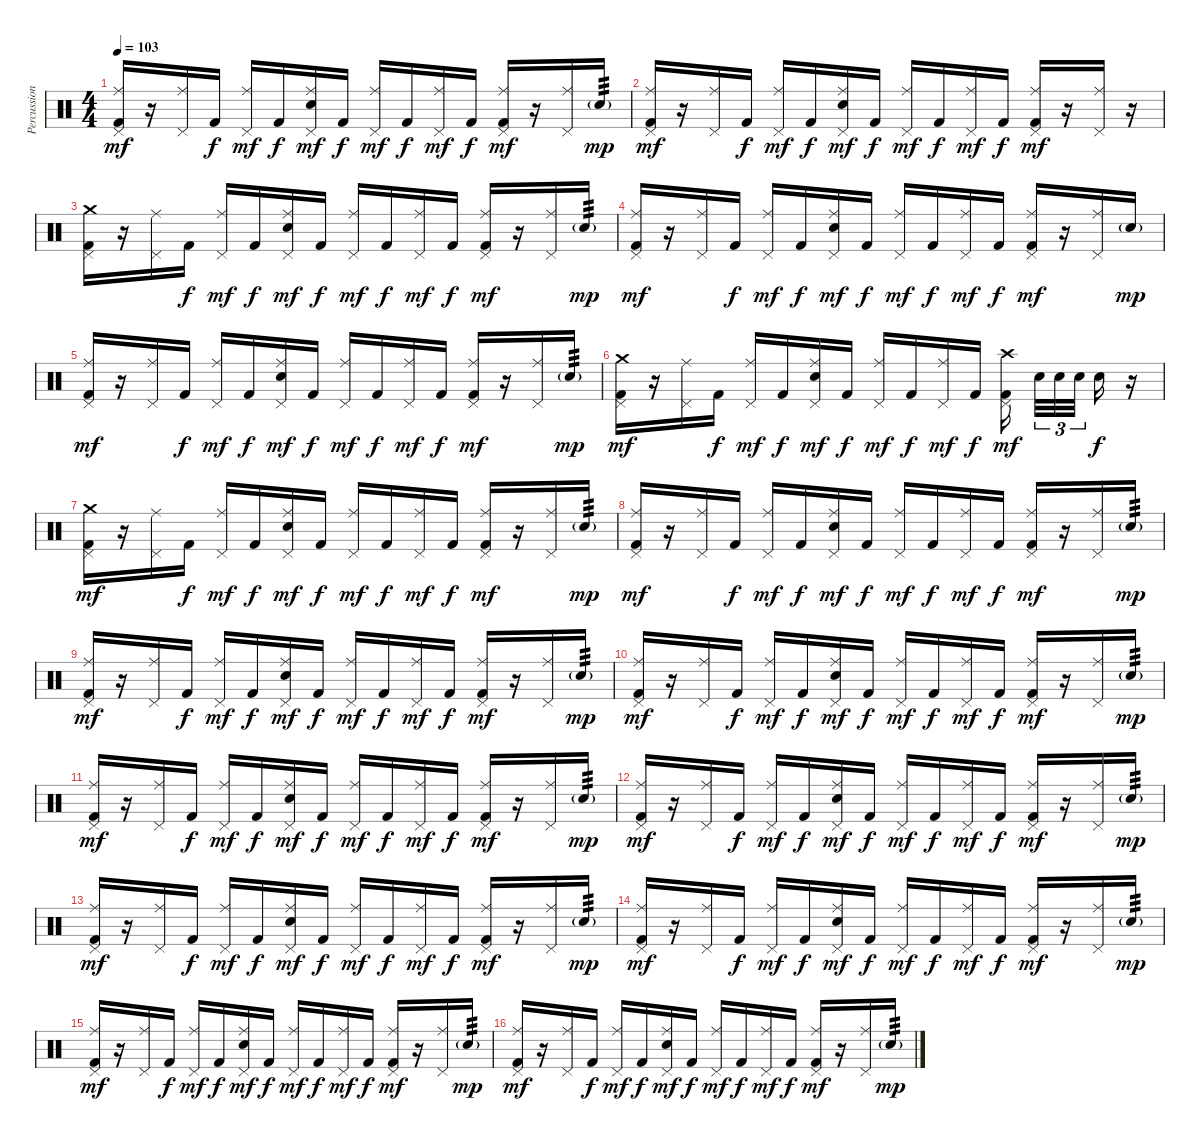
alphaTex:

\track ("Percussion" "Percussion") {instrument percussion}
\staff {score}
\articulation defaults
\ts (4 4)
\tempo 103
\clef neutral
\ks c
("Ride (middle)" "Pedal Hi-Hat (hit)" "Kick (hit) 2").16{dy mf} r.16 ("Ride (middle)" "Pedal Hi-Hat (hit)").16 "Kick (hit) 2".16{dy f} ("Ride (middle)" "Pedal Hi-Hat (hit)").16{dy mf} "Kick (hit) 2".16{dy f} ("Ride (middle)" "Pedal Hi-Hat (hit)" "Snare (hit) 2").16{dy mf} "Kick (hit) 2".16{dy f} ("Ride (middle)" "Pedal Hi-Hat (hit)").16{dy mf} "Kick (hit) 2".16{dy f} ("Ride (middle)" "Pedal Hi-Hat (hit)").16{dy mf} "Kick (hit) 2".16{dy f} ("Ride (middle)" "Pedal Hi-Hat (hit)" "Kick (hit) 2").16{dy mf} r.16 ("Ride (middle)" "Pedal Hi-Hat (hit)").16 "Snare (hit) 2"{g}.16{tp 3 dy mp} |
("Ride (middle)" "Pedal Hi-Hat (hit)" "Kick (hit) 2").16{dy mf} r.16 ("Ride (middle)" "Pedal Hi-Hat (hit)").16 "Kick (hit) 2".16{dy f} ("Ride (middle)" "Pedal Hi-Hat (hit)").16{dy mf} "Kick (hit) 2".16{dy f} ("Ride (middle)" "Pedal Hi-Hat (hit)" "Snare (hit) 2").16{dy mf} "Kick (hit) 2".16{dy f} ("Ride (middle)" "Pedal Hi-Hat (hit)").16{dy mf} "Kick (hit) 2".16{dy f} ("Ride (middle)" "Pedal Hi-Hat (hit)").16{dy mf} "Kick (hit) 2".16{dy f} ("Ride (middle)" "Pedal Hi-Hat (hit)" "Kick (hit) 2").16{dy mf} r.16 ("Ride (middle)" "Pedal Hi-Hat (hit)").16 r.16 |
("Crash medium (hit)" "Pedal Hi-Hat (hit)" "Kick (hit) 2").16 r.16 ("Ride (middle)" "Pedal Hi-Hat (hit)").16 "Kick (hit) 2".16{dy f} ("Ride (middle)" "Pedal Hi-Hat (hit)").16{dy mf} "Kick (hit) 2".16{dy f} ("Ride (middle)" "Pedal Hi-Hat (hit)" "Snare (hit) 2").16{dy mf} "Kick (hit) 2".16{dy f} ("Ride (middle)" "Pedal Hi-Hat (hit)").16{dy mf} "Kick (hit) 2".16{dy f} ("Ride (middle)" "Pedal Hi-Hat (hit)").16{dy mf} "Kick (hit) 2".16{dy f} ("Ride (middle)" "Pedal Hi-Hat (hit)" "Kick (hit) 2").16{dy mf} r.16 ("Ride (middle)" "Pedal Hi-Hat (hit)").16 "Snare (hit) 2"{g}.16{tp 3 dy mp} |
("Ride (middle)" "Pedal Hi-Hat (hit)" "Kick (hit) 2").16{dy mf} r.16 ("Ride (middle)" "Pedal Hi-Hat (hit)").16 "Kick (hit) 2".16{dy f} ("Ride (middle)" "Pedal Hi-Hat (hit)").16{dy mf} "Kick (hit) 2".16{dy f} ("Ride (middle)" "Pedal Hi-Hat (hit)" "Snare (hit) 2").16{dy mf} "Kick (hit) 2".16{dy f} ("Ride (middle)" "Pedal Hi-Hat (hit)").16{dy mf} "Kick (hit) 2".16{dy f} ("Ride (middle)" "Pedal Hi-Hat (hit)").16{dy mf} "Kick (hit) 2".16{dy f} ("Ride (middle)" "Pedal Hi-Hat (hit)" "Kick (hit) 2").16{dy mf} r.16 ("Ride (middle)" "Pedal Hi-Hat (hit)").16 "Snare (hit) 2"{g}.16{dy mp} |
("Ride (middle)" "Pedal Hi-Hat (hit)" "Kick (hit) 2").16{dy mf} r.16 ("Ride (middle)" "Pedal Hi-Hat (hit)").16 "Kick (hit) 2".16{dy f} ("Ride (middle)" "Pedal Hi-Hat (hit)").16{dy mf} "Kick (hit) 2".16{dy f} ("Ride (middle)" "Pedal Hi-Hat (hit)" "Snare (hit) 2").16{dy mf} "Kick (hit) 2".16{dy f} ("Ride (middle)" "Pedal Hi-Hat (hit)").16{dy mf} "Kick (hit) 2".16{dy f} ("Ride (middle)" "Pedal Hi-Hat (hit)").16{dy mf} "Kick (hit) 2".16{dy f} ("Ride (middle)" "Pedal Hi-Hat (hit)" "Kick (hit) 2").16{dy mf} r.16 ("Ride (middle)" "Pedal Hi-Hat (hit)").16 "Snare (hit) 2"{g}.16{tp 3 dy mp} |
("Crash medium (hit)" "Pedal Hi-Hat (hit)" "Kick (hit) 2").16{dy mf} r.16 ("Ride (middle)" "Pedal Hi-Hat (hit)").16 "Kick (hit) 2".16{dy f} ("Ride (middle)" "Pedal Hi-Hat (hit)").16{dy mf} "Kick (hit) 2".16{dy f} ("Ride (middle)" "Pedal Hi-Hat (hit)" "Snare (hit) 2").16{dy mf} "Kick (hit) 2".16{dy f} ("Ride (middle)" "Pedal Hi-Hat (hit)").16{dy mf} "Kick (hit) 2".16{dy f} ("Ride (middle)" "Pedal Hi-Hat (hit)").16{dy mf} "Kick (hit) 2".16{dy f} ("Crash high (hit)" "Pedal Hi-Hat (hit)" "Kick (hit) 2").16{dy mf beam splitsecondary} "Snare (hit) 2".32{tu (3 2)} "Snare (hit) 2".32{tu (3 2)} "Snare (hit) 2".32{tu (3 2) beam splitsecondary} "Snare (hit) 2".16{dy f} r.16 |
("Crash medium (hit)" "Pedal Hi-Hat (hit)" "Kick (hit) 2").16{dy mf} r.16 ("Ride (middle)" "Pedal Hi-Hat (hit)").16 "Kick (hit) 2".16{dy f} ("Ride (middle)" "Pedal Hi-Hat (hit)").16{dy mf} "Kick (hit) 2".16{dy f} ("Ride (middle)" "Pedal Hi-Hat (hit)" "Snare (hit) 2").16{dy mf} "Kick (hit) 2".16{dy f} ("Ride (middle)" "Pedal Hi-Hat (hit)").16{dy mf} "Kick (hit) 2".16{dy f} ("Ride (middle)" "Pedal Hi-Hat (hit)").16{dy mf} "Kick (hit) 2".16{dy f} ("Ride (middle)" "Pedal Hi-Hat (hit)" "Kick (hit) 2").16{dy mf} r.16 ("Ride (middle)" "Pedal Hi-Hat (hit)").16 "Snare (hit) 2"{g}.16{tp 3 dy mp} |
("Ride (middle)" "Pedal Hi-Hat (hit)" "Kick (hit) 2").16{dy mf} r.16 ("Ride (middle)" "Pedal Hi-Hat (hit)").16 "Kick (hit) 2".16{dy f} ("Ride (middle)" "Pedal Hi-Hat (hit)").16{dy mf} "Kick (hit) 2".16{dy f} ("Ride (middle)" "Pedal Hi-Hat (hit)" "Snare (hit) 2").16{dy mf} "Kick (hit) 2".16{dy f} ("Ride (middle)" "Pedal Hi-Hat (hit)").16{dy mf} "Kick (hit) 2".16{dy f} ("Ride (middle)" "Pedal Hi-Hat (hit)").16{dy mf} "Kick (hit) 2".16{dy f} ("Ride (middle)" "Pedal Hi-Hat (hit)" "Kick (hit) 2").16{dy mf} r.16 ("Ride (middle)" "Pedal Hi-Hat (hit)").16 "Snare (hit) 2"{g}.16{tp 3 dy mp} |
("Ride (middle)" "Pedal Hi-Hat (hit)" "Kick (hit) 2").16{dy mf} r.16 ("Ride (middle)" "Pedal Hi-Hat (hit)").16 "Kick (hit) 2".16{dy f} ("Ride (middle)" "Pedal Hi-Hat (hit)").16{dy mf} "Kick (hit) 2".16{dy f} ("Ride (middle)" "Pedal Hi-Hat (hit)" "Snare (hit) 2").16{dy mf} "Kick (hit) 2".16{dy f} ("Ride (middle)" "Pedal Hi-Hat (hit)").16{dy mf} "Kick (hit) 2".16{dy f} ("Ride (middle)" "Pedal Hi-Hat (hit)").16{dy mf} "Kick (hit) 2".16{dy f} ("Ride (middle)" "Pedal Hi-Hat (hit)" "Kick (hit) 2").16{dy mf} r.16 ("Ride (middle)" "Pedal Hi-Hat (hit)").16 "Snare (hit) 2"{g}.16{tp 3 dy mp} |
("Ride (middle)" "Pedal Hi-Hat (hit)" "Kick (hit) 2").16{dy mf} r.16 ("Ride (middle)" "Pedal Hi-Hat (hit)").16 "Kick (hit) 2".16{dy f} ("Ride (middle)" "Pedal Hi-Hat (hit)").16{dy mf} "Kick (hit) 2".16{dy f} ("Ride (middle)" "Pedal Hi-Hat (hit)" "Snare (hit) 2").16{dy mf} "Kick (hit) 2".16{dy f} ("Ride (middle)" "Pedal Hi-Hat (hit)").16{dy mf} "Kick (hit) 2".16{dy f} ("Ride (middle)" "Pedal Hi-Hat (hit)").16{dy mf} "Kick (hit) 2".16{dy f} ("Ride (middle)" "Pedal Hi-Hat (hit)" "Kick (hit) 2").16{dy mf} r.16 ("Ride (middle)" "Pedal Hi-Hat (hit)").16 "Snare (hit) 2"{g}.16{tp 3 dy mp} |
("Ride (middle)" "Pedal Hi-Hat (hit)" "Kick (hit) 2").16{dy mf} r.16 ("Ride (middle)" "Pedal Hi-Hat (hit)").16 "Kick (hit) 2".16{dy f} ("Ride (middle)" "Pedal Hi-Hat (hit)").16{dy mf} "Kick (hit) 2".16{dy f} ("Ride (middle)" "Pedal Hi-Hat (hit)" "Snare (hit) 2").16{dy mf} "Kick (hit) 2".16{dy f} ("Ride (middle)" "Pedal Hi-Hat (hit)").16{dy mf} "Kick (hit) 2".16{dy f} ("Ride (middle)" "Pedal Hi-Hat (hit)").16{dy mf} "Kick (hit) 2".16{dy f} ("Ride (middle)" "Pedal Hi-Hat (hit)" "Kick (hit) 2").16{dy mf} r.16 ("Ride (middle)" "Pedal Hi-Hat (hit)").16 "Snare (hit) 2"{g}.16{tp 3 dy mp} |
("Ride (middle)" "Pedal Hi-Hat (hit)" "Kick (hit) 2").16{dy mf} r.16 ("Ride (middle)" "Pedal Hi-Hat (hit)").16 "Kick (hit) 2".16{dy f} ("Ride (middle)" "Pedal Hi-Hat (hit)").16{dy mf} "Kick (hit) 2".16{dy f} ("Ride (middle)" "Pedal Hi-Hat (hit)" "Snare (hit) 2").16{dy mf} "Kick (hit) 2".16{dy f} ("Ride (middle)" "Pedal Hi-Hat (hit)").16{dy mf} "Kick (hit) 2".16{dy f} ("Ride (middle)" "Pedal Hi-Hat (hit)").16{dy mf} "Kick (hit) 2".16{dy f} ("Ride (middle)" "Pedal Hi-Hat (hit)" "Kick (hit) 2").16{dy mf} r.16 ("Ride (middle)" "Pedal Hi-Hat (hit)").16 "Snare (hit) 2"{g}.16{tp 3 dy mp} |
("Ride (middle)" "Pedal Hi-Hat (hit)" "Kick (hit) 2").16{dy mf} r.16 ("Ride (middle)" "Pedal Hi-Hat (hit)").16 "Kick (hit) 2".16{dy f} ("Ride (middle)" "Pedal Hi-Hat (hit)").16{dy mf} "Kick (hit) 2".16{dy f} ("Ride (middle)" "Pedal Hi-Hat (hit)" "Snare (hit) 2").16{dy mf} "Kick (hit) 2".16{dy f} ("Ride (middle)" "Pedal Hi-Hat (hit)").16{dy mf} "Kick (hit) 2".16{dy f} ("Ride (middle)" "Pedal Hi-Hat (hit)").16{dy mf} "Kick (hit) 2".16{dy f} ("Ride (middle)" "Pedal Hi-Hat (hit)" "Kick (hit) 2").16{dy mf} r.16 ("Ride (middle)" "Pedal Hi-Hat (hit)").16 "Snare (hit) 2"{g}.16{tp 3 dy mp} |
("Ride (middle)" "Pedal Hi-Hat (hit)" "Kick (hit) 2").16{dy mf} r.16 ("Ride (middle)" "Pedal Hi-Hat (hit)").16 "Kick (hit) 2".16{dy f} ("Ride (middle)" "Pedal Hi-Hat (hit)").16{dy mf} "Kick (hit) 2".16{dy f} ("Ride (middle)" "Pedal Hi-Hat (hit)" "Snare (hit) 2").16{dy mf} "Kick (hit) 2".16{dy f} ("Ride (middle)" "Pedal Hi-Hat (hit)").16{dy mf} "Kick (hit) 2".16{dy f} ("Ride (middle)" "Pedal Hi-Hat (hit)").16{dy mf} "Kick (hit) 2".16{dy f} ("Ride (middle)" "Pedal Hi-Hat (hit)" "Kick (hit) 2").16{dy mf} r.16 ("Ride (middle)" "Pedal Hi-Hat (hit)").16 "Snare (hit) 2"{g}.16{tp 3 dy mp} |
("Ride (middle)" "Pedal Hi-Hat (hit)" "Kick (hit) 2").16{dy mf} r.16 ("Ride (middle)" "Pedal Hi-Hat (hit)").16 "Kick (hit) 2".16{dy f} ("Ride (middle)" "Pedal Hi-Hat (hit)").16{dy mf} "Kick (hit) 2".16{dy f} ("Ride (middle)" "Pedal Hi-Hat (hit)" "Snare (hit) 2").16{dy mf} "Kick (hit) 2".16{dy f} ("Ride (middle)" "Pedal Hi-Hat (hit)").16{dy mf} "Kick (hit) 2".16{dy f} ("Ride (middle)" "Pedal Hi-Hat (hit)").16{dy mf} "Kick (hit) 2".16{dy f} ("Ride (middle)" "Pedal Hi-Hat (hit)" "Kick (hit) 2").16{dy mf} r.16 ("Ride (middle)" "Pedal Hi-Hat (hit)").16 "Snare (hit) 2"{g}.16{tp 3 dy mp} |
("Ride (middle)" "Pedal Hi-Hat (hit)" "Kick (hit) 2").16{dy mf} r.16 ("Ride (middle)" "Pedal Hi-Hat (hit)").16 "Kick (hit) 2".16{dy f} ("Ride (middle)" "Pedal Hi-Hat (hit)").16{dy mf} "Kick (hit) 2".16{dy f} ("Ride (middle)" "Pedal Hi-Hat (hit)" "Snare (hit) 2").16{dy mf} "Kick (hit) 2".16{dy f} ("Ride (middle)" "Pedal Hi-Hat (hit)").16{dy mf} "Kick (hit) 2".16{dy f} ("Ride (middle)" "Pedal Hi-Hat (hit)").16{dy mf} "Kick (hit) 2".16{dy f} ("Ride (middle)" "Pedal Hi-Hat (hit)" "Kick (hit) 2").16{dy mf} r.16 ("Ride (middle)" "Pedal Hi-Hat (hit)").16 "Snare (hit) 2"{g}.16{tp 3 dy mp}
